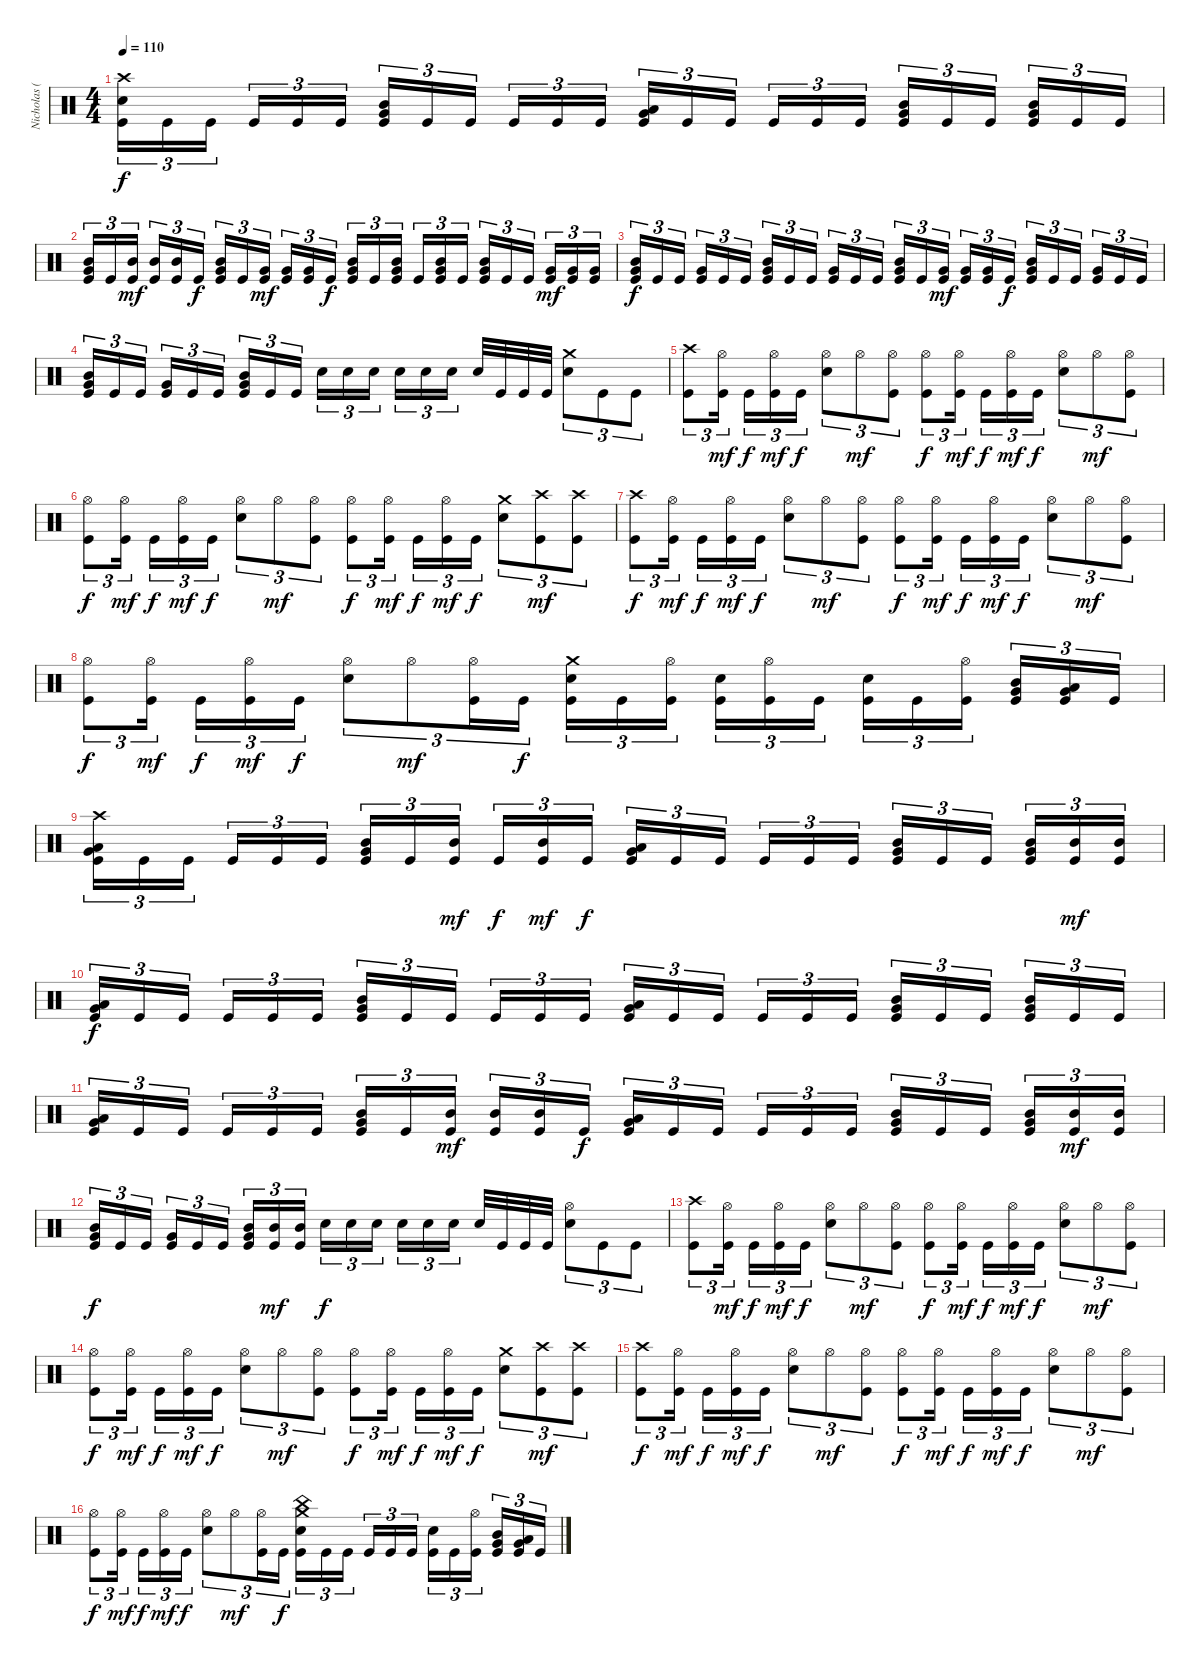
\track ("Nicholas (Drums)" "Nicholas (") {instrument percussion}
\staff {score}
\articulation defaults
\ts (4 4)
\tempo 110
\clef neutral
\ks c
("Crash high (hit)" "Electric Snare (hit)" "Kick (hit)").16{tu (3 2) dy f} "Kick (hit)".16{tu (3 2)} "Kick (hit)".16{tu (3 2)} "Kick (hit)".16{tu (3 2)} "Kick (hit)".16{tu (3 2)} "Kick (hit)".16{tu (3 2)} ("Mid Tom (hit)" "Very Low Tom (hit)" "Kick (hit)").16{tu (3 2)} "Kick (hit)".16{tu (3 2)} "Kick (hit)".16{tu (3 2)} "Kick (hit)".16{tu (3 2)} "Kick (hit)".16{tu (3 2)} "Kick (hit)".16{tu (3 2)} ("Low Tom (hit)" "Very Low Tom (hit)" "Kick (hit)").16{tu (3 2)} "Kick (hit)".16{tu (3 2)} "Kick (hit)".16{tu (3 2)} "Kick (hit)".16{tu (3 2)} "Kick (hit)".16{tu (3 2)} "Kick (hit)".16{tu (3 2)} ("Mid Tom (hit)" "Very Low Tom (hit)" "Kick (hit)").16{tu (3 2)} "Kick (hit)".16{tu (3 2)} "Kick (hit)".16{tu (3 2)} ("Mid Tom (hit)" "Very Low Tom (hit)" "Kick (hit)").16{tu (3 2)} "Kick (hit)".16{tu (3 2)} "Kick (hit)".16{tu (3 2)} |
("Mid Tom (hit)" "Very Low Tom (hit)" "Kick (hit)").16{tu (3 2)} "Kick (hit)".16{tu (3 2)} ("Mid Tom (hit)" "Kick (hit)").16{tu (3 2) dy mf} ("Mid Tom (hit)" "Kick (hit)").16{tu (3 2)} ("Mid Tom (hit)" "Kick (hit)").16{tu (3 2)} "Kick (hit)".16{tu (3 2) dy f} ("Mid Tom (hit)" "Very Low Tom (hit)" "Kick (hit)").16{tu (3 2)} "Kick (hit)".16{tu (3 2)} ("Very Low Tom (hit)" "Kick (hit)").16{tu (3 2) dy mf} ("Very Low Tom (hit)" "Kick (hit)").16{tu (3 2)} ("Very Low Tom (hit)" "Kick (hit)").16{tu (3 2)} "Kick (hit)".16{tu (3 2) dy f} ("Mid Tom (hit)" "Very Low Tom (hit)" "Kick (hit)").16{tu (3 2)} "Kick (hit)".16{tu (3 2)} ("Mid Tom (hit)" "Very Low Tom (hit)" "Kick (hit)").16{tu (3 2)} "Kick (hit)".16{tu (3 2)} ("Mid Tom (hit)" "Very Low Tom (hit)" "Kick (hit)").16{tu (3 2)} "Kick (hit)".16{tu (3 2)} ("Mid Tom (hit)" "Very Low Tom (hit)" "Kick (hit)").16{tu (3 2)} "Kick (hit)".16{tu (3 2)} "Kick (hit)".16{tu (3 2)} ("Very Low Tom (hit)" "Kick (hit)").16{tu (3 2) dy mf} ("Very Low Tom (hit)" "Kick (hit)").16{tu (3 2)} ("Very Low Tom (hit)" "Kick (hit)").16{tu (3 2)} |
("Mid Tom (hit)" "Very Low Tom (hit)" "Kick (hit)").16{tu (3 2) dy f} "Kick (hit)".16{tu (3 2)} "Kick (hit)".16{tu (3 2)} ("Very Low Tom (hit)" "Kick (hit)").16{tu (3 2)} "Kick (hit)".16{tu (3 2)} "Kick (hit)".16{tu (3 2)} ("Mid Tom (hit)" "Very Low Tom (hit)" "Kick (hit)").16{tu (3 2)} "Kick (hit)".16{tu (3 2)} "Kick (hit)".16{tu (3 2)} ("Very Low Tom (hit)" "Kick (hit)").16{tu (3 2)} "Kick (hit)".16{tu (3 2)} "Kick (hit)".16{tu (3 2)} ("Mid Tom (hit)" "Very Low Tom (hit)" "Kick (hit)").16{tu (3 2)} "Kick (hit)".16{tu (3 2)} ("Very Low Tom (hit)" "Kick (hit)").16{tu (3 2) dy mf} ("Very Low Tom (hit)" "Kick (hit)").16{tu (3 2)} ("Very Low Tom (hit)" "Kick (hit)").16{tu (3 2)} "Kick (hit)".16{tu (3 2) dy f} ("Mid Tom (hit)" "Very Low Tom (hit)" "Kick (hit)").16{tu (3 2)} "Kick (hit)".16{tu (3 2)} "Kick (hit)".16{tu (3 2)} ("Very Low Tom (hit)" "Kick (hit)").16{tu (3 2)} "Kick (hit)".16{tu (3 2)} "Kick (hit)".16{tu (3 2)} |
("Mid Tom (hit)" "Very Low Tom (hit)" "Kick (hit)").16{tu (3 2)} "Kick (hit)".16{tu (3 2)} "Kick (hit)".16{tu (3 2)} ("Very Low Tom (hit)" "Kick (hit)").16{tu (3 2)} "Kick (hit)".16{tu (3 2)} "Kick (hit)".16{tu (3 2)} ("Mid Tom (hit)" "Very Low Tom (hit)" "Kick (hit)").16{tu (3 2)} "Kick (hit)".16{tu (3 2)} "Kick (hit)".16{tu (3 2)} "Electric Snare (hit)".16{tu (3 2)} "Electric Snare (hit)".16{tu (3 2)} "Electric Snare (hit)".16{tu (3 2)} "Electric Snare (hit)".16{tu (3 2)} "Electric Snare (hit)".16{tu (3 2)} "Electric Snare (hit)".16{tu (3 2)} "Electric Snare (hit)".32 "Kick (hit)".32 "Kick (hit)".32 "Kick (hit)".32 ("Crash medium (hit)" "Electric Snare (hit)").8{tu (3 2)} "Kick (hit)".8{tu (3 2)} "Kick (hit)".8{tu (3 2)} |
("Crash high (hit)" "Kick (hit)").8{tu (3 2)} ("Hi-Hat (open)" "Kick (hit)").16{tu (3 2) dy mf} "Kick (hit)".16{tu (3 2) dy f} ("Hi-Hat (open)" "Kick (hit)").16{tu (3 2) dy mf} "Kick (hit)".16{tu (3 2) dy f} ("Hi-Hat (open)" "Electric Snare (hit)").8{tu (3 2)} "Hi-Hat (open)".8{tu (3 2) dy mf} ("Hi-Hat (open)" "Kick (hit)").8{tu (3 2)} ("Hi-Hat (open)" "Kick (hit)").8{tu (3 2) dy f} ("Hi-Hat (open)" "Kick (hit)").16{tu (3 2) dy mf} "Kick (hit)".16{tu (3 2) dy f} ("Hi-Hat (open)" "Kick (hit)").16{tu (3 2) dy mf} "Kick (hit)".16{tu (3 2) dy f} ("Hi-Hat (open)" "Electric Snare (hit)").8{tu (3 2)} "Hi-Hat (open)".8{tu (3 2) dy mf} ("Hi-Hat (open)" "Kick (hit)").8{tu (3 2)} |
("Hi-Hat (open)" "Kick (hit)").8{tu (3 2) dy f} ("Hi-Hat (open)" "Kick (hit)").16{tu (3 2) dy mf} "Kick (hit)".16{tu (3 2) dy f} ("Hi-Hat (open)" "Kick (hit)").16{tu (3 2) dy mf} "Kick (hit)".16{tu (3 2) dy f} ("Hi-Hat (open)" "Electric Snare (hit)").8{tu (3 2)} "Hi-Hat (open)".8{tu (3 2) dy mf} ("Hi-Hat (open)" "Kick (hit)").8{tu (3 2)} ("Hi-Hat (open)" "Kick (hit)").8{tu (3 2) dy f} ("Hi-Hat (open)" "Kick (hit)").16{tu (3 2) dy mf} "Kick (hit)".16{tu (3 2) dy f} ("Hi-Hat (open)" "Kick (hit)").16{tu (3 2) dy mf} "Kick (hit)".16{tu (3 2) dy f} ("Crash medium (hit)" "Electric Snare (hit)").8{tu (3 2)} ("Crash high (hit)" "Kick (hit)").8{tu (3 2) dy mf} ("Crash high (hit)" "Kick (hit)").8{tu (3 2)} |
("Crash high (hit)" "Kick (hit)").8{tu (3 2) dy f} ("Hi-Hat (open)" "Kick (hit)").16{tu (3 2) dy mf} "Kick (hit)".16{tu (3 2) dy f} ("Hi-Hat (open)" "Kick (hit)").16{tu (3 2) dy mf} "Kick (hit)".16{tu (3 2) dy f} ("Hi-Hat (open)" "Electric Snare (hit)").8{tu (3 2)} "Hi-Hat (open)".8{tu (3 2) dy mf} ("Hi-Hat (open)" "Kick (hit)").8{tu (3 2)} ("Hi-Hat (open)" "Kick (hit)").8{tu (3 2) dy f} ("Hi-Hat (open)" "Kick (hit)").16{tu (3 2) dy mf} "Kick (hit)".16{tu (3 2) dy f} ("Hi-Hat (open)" "Kick (hit)").16{tu (3 2) dy mf} "Kick (hit)".16{tu (3 2) dy f} ("Hi-Hat (open)" "Electric Snare (hit)").8{tu (3 2)} "Hi-Hat (open)".8{tu (3 2) dy mf} ("Hi-Hat (open)" "Kick (hit)").8{tu (3 2)} |
("Hi-Hat (open)" "Kick (hit)").8{tu (3 2) dy f} ("Hi-Hat (open)" "Kick (hit)").16{tu (3 2) dy mf} "Kick (hit)".16{tu (3 2) dy f} ("Hi-Hat (open)" "Kick (hit)").16{tu (3 2) dy mf} "Kick (hit)".16{tu (3 2) dy f} ("Hi-Hat (open)" "Electric Snare (hit)").8{tu (3 2)} "Hi-Hat (open)".8{tu (3 2) dy mf} ("Hi-Hat (open)" "Kick (hit)").16{tu (3 2)} "Kick (hit)".16{tu (3 2) dy f} ("Crash medium (hit)" "Electric Snare (hit)" "Kick (hit)").16{tu (3 2)} "Kick (hit)".16{tu (3 2)} ("Hi-Hat (open)" "Kick (hit)").16{tu (3 2)} ("Electric Snare (hit)" "Kick (hit)").16{tu (3 2)} ("Hi-Hat (open)" "Kick (hit)").16{tu (3 2)} "Kick (hit)".16{tu (3 2)} ("Electric Snare (hit)" "Kick (hit)").16{tu (3 2)} "Kick (hit)".16{tu (3 2)} ("Hi-Hat (open)" "Kick (hit)").16{tu (3 2)} ("Mid Tom (hit)" "Very Low Tom (hit)" "Kick (hit)").16{tu (3 2)} ("Low Tom (hit)" "Very Low Tom (hit)" "Kick (hit)").16{tu (3 2)} "Kick (hit)".16{tu (3 2)} |
("Crash high (hit)" "Low Tom (hit)" "Very Low Tom (hit)" "Kick (hit)").16{tu (3 2)} "Kick (hit)".16{tu (3 2)} "Kick (hit)".16{tu (3 2)} "Kick (hit)".16{tu (3 2)} "Kick (hit)".16{tu (3 2)} "Kick (hit)".16{tu (3 2)} ("Mid Tom (hit)" "Very Low Tom (hit)" "Kick (hit)").16{tu (3 2)} "Kick (hit)".16{tu (3 2)} ("Mid Tom (hit)" "Kick (hit)").16{tu (3 2) dy mf} "Kick (hit)".16{tu (3 2) dy f} ("Mid Tom (hit)" "Kick (hit)").16{tu (3 2) dy mf} "Kick (hit)".16{tu (3 2) dy f} ("Low Tom (hit)" "Very Low Tom (hit)" "Kick (hit)").16{tu (3 2)} "Kick (hit)".16{tu (3 2)} "Kick (hit)".16{tu (3 2)} "Kick (hit)".16{tu (3 2)} "Kick (hit)".16{tu (3 2)} "Kick (hit)".16{tu (3 2)} ("Mid Tom (hit)" "Very Low Tom (hit)" "Kick (hit)").16{tu (3 2)} "Kick (hit)".16{tu (3 2)} "Kick (hit)".16{tu (3 2)} ("Mid Tom (hit)" "Very Low Tom (hit)" "Kick (hit)").16{tu (3 2)} ("Mid Tom (hit)" "Kick (hit)").16{tu (3 2) dy mf} ("Mid Tom (hit)" "Kick (hit)").16{tu (3 2)} |
("Low Tom (hit)" "Very Low Tom (hit)" "Kick (hit)").16{tu (3 2) dy f} "Kick (hit)".16{tu (3 2)} "Kick (hit)".16{tu (3 2)} "Kick (hit)".16{tu (3 2)} "Kick (hit)".16{tu (3 2)} "Kick (hit)".16{tu (3 2)} ("Mid Tom (hit)" "Very Low Tom (hit)" "Kick (hit)").16{tu (3 2)} "Kick (hit)".16{tu (3 2)} "Kick (hit)".16{tu (3 2)} "Kick (hit)".16{tu (3 2)} "Kick (hit)".16{tu (3 2)} "Kick (hit)".16{tu (3 2)} ("Low Tom (hit)" "Very Low Tom (hit)" "Kick (hit)").16{tu (3 2)} "Kick (hit)".16{tu (3 2)} "Kick (hit)".16{tu (3 2)} "Kick (hit)".16{tu (3 2)} "Kick (hit)".16{tu (3 2)} "Kick (hit)".16{tu (3 2)} ("Mid Tom (hit)" "Very Low Tom (hit)" "Kick (hit)").16{tu (3 2)} "Kick (hit)".16{tu (3 2)} "Kick (hit)".16{tu (3 2)} ("Mid Tom (hit)" "Very Low Tom (hit)" "Kick (hit)").16{tu (3 2)} "Kick (hit)".16{tu (3 2)} "Kick (hit)".16{tu (3 2)} |
("Low Tom (hit)" "Very Low Tom (hit)" "Kick (hit)").16{tu (3 2)} "Kick (hit)".16{tu (3 2)} "Kick (hit)".16{tu (3 2)} "Kick (hit)".16{tu (3 2)} "Kick (hit)".16{tu (3 2)} "Kick (hit)".16{tu (3 2)} ("Mid Tom (hit)" "Very Low Tom (hit)" "Kick (hit)").16{tu (3 2)} "Kick (hit)".16{tu (3 2)} ("Mid Tom (hit)" "Kick (hit)").16{tu (3 2) dy mf} ("Mid Tom (hit)" "Kick (hit)").16{tu (3 2)} ("Mid Tom (hit)" "Kick (hit)").16{tu (3 2)} "Kick (hit)".16{tu (3 2) dy f} ("Low Tom (hit)" "Very Low Tom (hit)" "Kick (hit)").16{tu (3 2)} "Kick (hit)".16{tu (3 2)} "Kick (hit)".16{tu (3 2)} "Kick (hit)".16{tu (3 2)} "Kick (hit)".16{tu (3 2)} "Kick (hit)".16{tu (3 2)} ("Mid Tom (hit)" "Very Low Tom (hit)" "Kick (hit)").16{tu (3 2)} "Kick (hit)".16{tu (3 2)} "Kick (hit)".16{tu (3 2)} ("Mid Tom (hit)" "Very Low Tom (hit)" "Kick (hit)").16{tu (3 2)} ("Mid Tom (hit)" "Kick (hit)").16{tu (3 2) dy mf} ("Mid Tom (hit)" "Kick (hit)").16{tu (3 2)} |
("Mid Tom (hit)" "Very Low Tom (hit)" "Kick (hit)").16{tu (3 2) dy f} "Kick (hit)".16{tu (3 2)} "Kick (hit)".16{tu (3 2)} ("Very Low Tom (hit)" "Kick (hit)").16{tu (3 2)} "Kick (hit)".16{tu (3 2)} "Kick (hit)".16{tu (3 2)} ("Mid Tom (hit)" "Very Low Tom (hit)" "Kick (hit)").16{tu (3 2)} ("Mid Tom (hit)" "Kick (hit)").16{tu (3 2) dy mf} ("Mid Tom (hit)" "Kick (hit)").16{tu (3 2)} "Electric Snare (hit)".16{tu (3 2) dy f} "Electric Snare (hit)".16{tu (3 2)} "Electric Snare (hit)".16{tu (3 2)} "Electric Snare (hit)".16{tu (3 2)} "Electric Snare (hit)".16{tu (3 2)} "Electric Snare (hit)".16{tu (3 2)} "Electric Snare (hit)".32 "Kick (hit)".32 "Kick (hit)".32 "Kick (hit)".32 ("Hi-Hat (open)" "Electric Snare (hit)").8{tu (3 2)} "Kick (hit)".8{tu (3 2)} "Kick (hit)".8{tu (3 2)} |
("Crash high (hit)" "Kick (hit)").8{tu (3 2)} ("Hi-Hat (open)" "Kick (hit)").16{tu (3 2) dy mf} "Kick (hit)".16{tu (3 2) dy f} ("Hi-Hat (open)" "Kick (hit)").16{tu (3 2) dy mf} "Kick (hit)".16{tu (3 2) dy f} ("Hi-Hat (open)" "Electric Snare (hit)").8{tu (3 2)} "Hi-Hat (open)".8{tu (3 2) dy mf} ("Hi-Hat (open)" "Kick (hit)").8{tu (3 2)} ("Hi-Hat (open)" "Kick (hit)").8{tu (3 2) dy f} ("Hi-Hat (open)" "Kick (hit)").16{tu (3 2) dy mf} "Kick (hit)".16{tu (3 2) dy f} ("Hi-Hat (open)" "Kick (hit)").16{tu (3 2) dy mf} "Kick (hit)".16{tu (3 2) dy f} ("Hi-Hat (open)" "Electric Snare (hit)").8{tu (3 2)} "Hi-Hat (open)".8{tu (3 2) dy mf} ("Hi-Hat (open)" "Kick (hit)").8{tu (3 2)} |
("Hi-Hat (open)" "Kick (hit)").8{tu (3 2) dy f} ("Hi-Hat (open)" "Kick (hit)").16{tu (3 2) dy mf} "Kick (hit)".16{tu (3 2) dy f} ("Hi-Hat (open)" "Kick (hit)").16{tu (3 2) dy mf} "Kick (hit)".16{tu (3 2) dy f} ("Hi-Hat (open)" "Electric Snare (hit)").8{tu (3 2)} "Hi-Hat (open)".8{tu (3 2) dy mf} ("Hi-Hat (open)" "Kick (hit)").8{tu (3 2)} ("Hi-Hat (open)" "Kick (hit)").8{tu (3 2) dy f} ("Hi-Hat (open)" "Kick (hit)").16{tu (3 2) dy mf} "Kick (hit)".16{tu (3 2) dy f} ("Hi-Hat (open)" "Kick (hit)").16{tu (3 2) dy mf} "Kick (hit)".16{tu (3 2) dy f} ("Crash medium (hit)" "Electric Snare (hit)").8{tu (3 2)} ("Crash high (hit)" "Kick (hit)").8{tu (3 2) dy mf} ("Crash high (hit)" "Kick (hit)").8{tu (3 2)} |
("Crash high (hit)" "Kick (hit)").8{tu (3 2) dy f} ("Hi-Hat (open)" "Kick (hit)").16{tu (3 2) dy mf} "Kick (hit)".16{tu (3 2) dy f} ("Hi-Hat (open)" "Kick (hit)").16{tu (3 2) dy mf} "Kick (hit)".16{tu (3 2) dy f} ("Hi-Hat (open)" "Electric Snare (hit)").8{tu (3 2)} "Hi-Hat (open)".8{tu (3 2) dy mf} ("Hi-Hat (open)" "Kick (hit)").8{tu (3 2)} ("Hi-Hat (open)" "Kick (hit)").8{tu (3 2) dy f} ("Hi-Hat (open)" "Kick (hit)").16{tu (3 2) dy mf} "Kick (hit)".16{tu (3 2) dy f} ("Hi-Hat (open)" "Kick (hit)").16{tu (3 2) dy mf} "Kick (hit)".16{tu (3 2) dy f} ("Hi-Hat (open)" "Electric Snare (hit)").8{tu (3 2)} "Hi-Hat (open)".8{tu (3 2) dy mf} ("Hi-Hat (open)" "Kick (hit)").8{tu (3 2)} |
("Hi-Hat (open)" "Kick (hit)").8{tu (3 2) dy f} ("Hi-Hat (open)" "Kick (hit)").16{tu (3 2) dy mf} "Kick (hit)".16{tu (3 2) dy f} ("Hi-Hat (open)" "Kick (hit)").16{tu (3 2) dy mf} "Kick (hit)".16{tu (3 2) dy f} ("Hi-Hat (open)" "Electric Snare (hit)").8{tu (3 2)} "Hi-Hat (open)".8{tu (3 2) dy mf} ("Hi-Hat (open)" "Kick (hit)").16{tu (3 2)} "Kick (hit)".16{tu (3 2) dy f} ("Crash medium (hit)" "China (hit)" "Electric Snare (hit)" "Kick (hit)").16{tu (3 2)} "Kick (hit)".16{tu (3 2)} "Kick (hit)".16{tu (3 2)} "Kick (hit)".16{tu (3 2)} "Kick (hit)".16{tu (3 2)} "Kick (hit)".16{tu (3 2)} ("Electric Snare (hit)" "Kick (hit)").16{tu (3 2)} "Kick (hit)".16{tu (3 2)} ("Hi-Hat (open)" "Kick (hit)").16{tu (3 2)} ("Mid Tom (hit)" "Very Low Tom (hit)" "Kick (hit)").16{tu (3 2)} ("Low Tom (hit)" "Very Low Tom (hit)" "Kick (hit)").16{tu (3 2)} "Kick (hit)".16{tu (3 2)}
